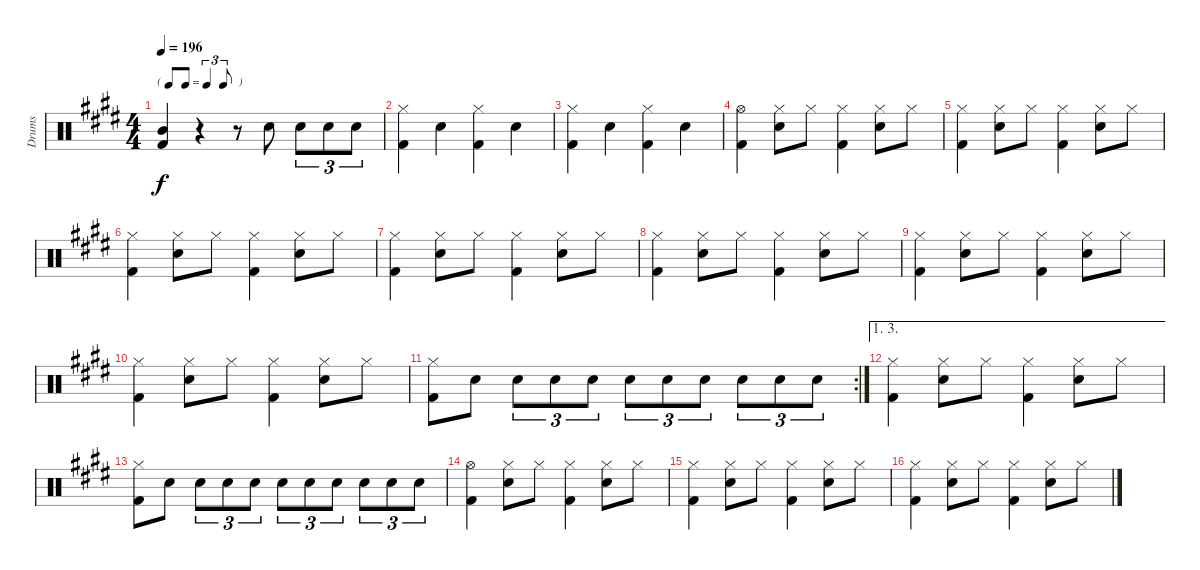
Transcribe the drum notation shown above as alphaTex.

\track ("Drums" "Drums") {instrument percussion}
\staff {score}
\articulation defaults
\ts (4 4)
\tf triplet8th
\tempo 196
\clef neutral
\ks e
("Mid Tom (hit)" "Kick (hit) 2").4{dy f} r.4 r.8 "Snare (hit) 2".8 "Snare (hit) 2".8{tu (3 2)} "Snare (hit) 2".8{tu (3 2)} "Snare (hit) 2".8{tu (3 2)} |
("Hi-Hat (closed)" "Kick (hit) 2").4 "Snare (hit) 2".4 ("Hi-Hat (closed)" "Kick (hit) 2").4 "Snare (hit) 2".4 |
("Hi-Hat (closed)" "Kick (hit) 2").4 "Snare (hit) 2".4 ("Hi-Hat (closed)" "Kick (hit) 2").4 "Snare (hit) 2".4 |
("Hi-Hat (open)" "Kick (hit) 2").4 ("Hi-Hat (closed)" "Snare (hit) 2").8 "Hi-Hat (closed)".8 ("Hi-Hat (closed)" "Kick (hit) 2").4 ("Hi-Hat (closed)" "Snare (hit) 2").8 "Hi-Hat (closed)".8 |
("Hi-Hat (closed)" "Kick (hit) 2").4 ("Hi-Hat (closed)" "Snare (hit) 2").8 "Hi-Hat (closed)".8 ("Hi-Hat (closed)" "Kick (hit) 2").4 ("Hi-Hat (closed)" "Snare (hit) 2").8 "Hi-Hat (closed)".8 |
("Hi-Hat (closed)" "Kick (hit) 2").4 ("Hi-Hat (closed)" "Snare (hit) 2").8 "Hi-Hat (closed)".8 ("Hi-Hat (closed)" "Kick (hit) 2").4 ("Hi-Hat (closed)" "Snare (hit) 2").8 "Hi-Hat (closed)".8 |
("Hi-Hat (closed)" "Kick (hit) 2").4 ("Hi-Hat (closed)" "Snare (hit) 2").8 "Hi-Hat (closed)".8 ("Hi-Hat (closed)" "Kick (hit) 2").4 ("Hi-Hat (closed)" "Snare (hit) 2").8 "Hi-Hat (closed)".8 |
("Hi-Hat (closed)" "Kick (hit) 2").4 ("Hi-Hat (closed)" "Snare (hit) 2").8 "Hi-Hat (closed)".8 ("Hi-Hat (closed)" "Kick (hit) 2").4 ("Hi-Hat (closed)" "Snare (hit) 2").8 "Hi-Hat (closed)".8 |
("Hi-Hat (closed)" "Kick (hit) 2").4 ("Hi-Hat (closed)" "Snare (hit) 2").8 "Hi-Hat (closed)".8 ("Hi-Hat (closed)" "Kick (hit) 2").4 ("Hi-Hat (closed)" "Snare (hit) 2").8 "Hi-Hat (closed)".8 |
("Hi-Hat (closed)" "Kick (hit) 2").4 ("Hi-Hat (closed)" "Snare (hit) 2").8 "Hi-Hat (closed)".8 ("Hi-Hat (closed)" "Kick (hit) 2").4 ("Hi-Hat (closed)" "Snare (hit) 2").8 "Hi-Hat (closed)".8 |
\rc 2
("Hi-Hat (closed)" "Kick (hit) 2").8 "Snare (hit) 2".8 "Snare (hit) 2".8{tu (3 2)} "Snare (hit) 2".8{tu (3 2)} "Snare (hit) 2".8{tu (3 2)} "Snare (hit) 2".8{tu (3 2)} "Snare (hit) 2".8{tu (3 2)} "Snare (hit) 2".8{tu (3 2)} "Snare (hit) 2".8{tu (3 2)} "Snare (hit) 2".8{tu (3 2)} "Snare (hit) 2".8{tu (3 2)} |
\ae (1 3)
("Hi-Hat (closed)" "Kick (hit) 2").4 ("Hi-Hat (closed)" "Snare (hit) 2").8 "Hi-Hat (closed)".8 ("Hi-Hat (closed)" "Kick (hit) 2").4 ("Hi-Hat (closed)" "Snare (hit) 2").8 "Hi-Hat (closed)".8 |
("Hi-Hat (closed)" "Kick (hit) 2").8 "Snare (hit) 2".8 "Snare (hit) 2".8{tu (3 2)} "Snare (hit) 2".8{tu (3 2)} "Snare (hit) 2".8{tu (3 2)} "Snare (hit) 2".8{tu (3 2)} "Snare (hit) 2".8{tu (3 2)} "Snare (hit) 2".8{tu (3 2)} "Snare (hit) 2".8{tu (3 2)} "Snare (hit) 2".8{tu (3 2)} "Snare (hit) 2".8{tu (3 2)} |
("Hi-Hat (open)" "Kick (hit) 2").4 ("Hi-Hat (closed)" "Snare (hit) 2").8 "Hi-Hat (closed)".8 ("Hi-Hat (closed)" "Kick (hit) 2").4 ("Hi-Hat (closed)" "Snare (hit) 2").8 "Hi-Hat (closed)".8 |
("Hi-Hat (closed)" "Kick (hit) 2").4 ("Hi-Hat (closed)" "Snare (hit) 2").8 "Hi-Hat (closed)".8 ("Hi-Hat (closed)" "Kick (hit) 2").4 ("Hi-Hat (closed)" "Snare (hit) 2").8 "Hi-Hat (closed)".8 |
("Hi-Hat (closed)" "Kick (hit) 2").4 ("Hi-Hat (closed)" "Snare (hit) 2").8 "Hi-Hat (closed)".8 ("Hi-Hat (closed)" "Kick (hit) 2").4 ("Hi-Hat (closed)" "Snare (hit) 2").8 "Hi-Hat (closed)".8
